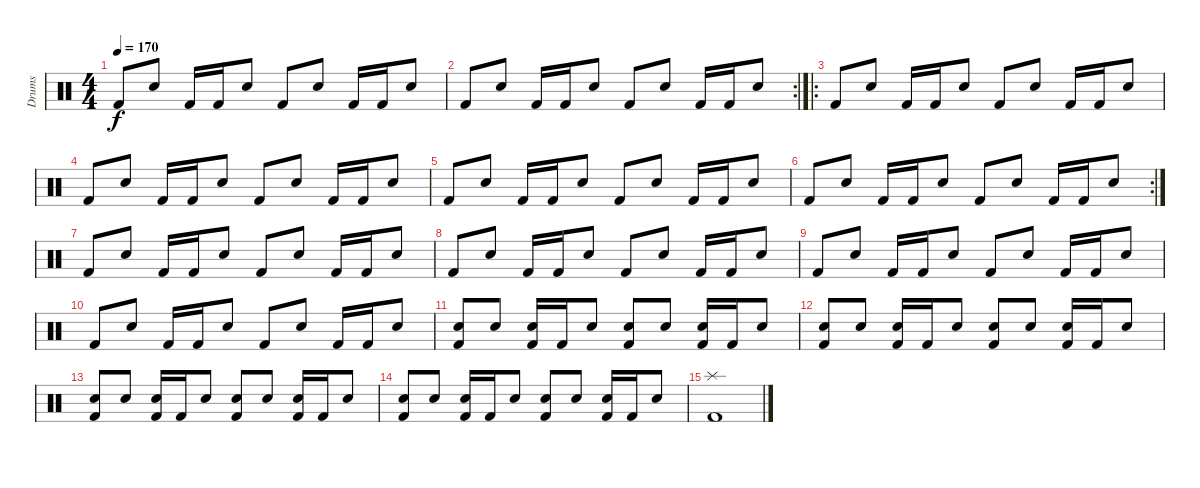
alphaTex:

\track ("Drums" "Drums") {instrument percussion}
\staff {score}
\articulation defaults
\ts (4 4)
\tempo 170
\clef neutral
\ks c "Kick (hit) 2".8{dy f} "Electric Snare (hit)".8 "Kick (hit) 2".16 "Kick (hit) 2".16 "Electric Snare (hit)".8 "Kick (hit) 2".8 "Electric Snare (hit)".8 "Kick (hit) 2".16 "Kick (hit) 2".16 "Electric Snare (hit)".8
|
\rc 2 "Kick (hit) 2".8 "Electric Snare (hit)".8 "Kick (hit) 2".16 "Kick (hit) 2".16 "Electric Snare (hit)".8 "Kick (hit) 2".8 "Electric Snare (hit)".8 "Kick (hit) 2".16 "Kick (hit) 2".16 "Electric Snare (hit)".8
|
\ro "Kick (hit) 2".8 "Electric Snare (hit)".8 "Kick (hit) 2".16 "Kick (hit) 2".16 "Electric Snare (hit)".8 "Kick (hit) 2".8 "Electric Snare (hit)".8 "Kick (hit) 2".16 "Kick (hit) 2".16 "Electric Snare (hit)".8
|
"Kick (hit) 2".8 "Electric Snare (hit)".8 "Kick (hit) 2".16 "Kick (hit) 2".16 "Electric Snare (hit)".8 "Kick (hit) 2".8 "Electric Snare (hit)".8 "Kick (hit) 2".16 "Kick (hit) 2".16 "Electric Snare (hit)".8 |
"Kick (hit) 2".8 "Electric Snare (hit)".8 "Kick (hit) 2".16 "Kick (hit) 2".16 "Electric Snare (hit)".8 "Kick (hit) 2".8 "Electric Snare (hit)".8 "Kick (hit) 2".16 "Kick (hit) 2".16 "Electric Snare (hit)".8 |
\rc 2 "Kick (hit) 2".8 "Electric Snare (hit)".8 "Kick (hit) 2".16 "Kick (hit) 2".16 "Electric Snare (hit)".8 "Kick (hit) 2".8 "Electric Snare (hit)".8 "Kick (hit) 2".16 "Kick (hit) 2".16 "Electric Snare (hit)".8
|
"Kick (hit) 2".8 "Electric Snare (hit)".8 "Kick (hit) 2".16 "Kick (hit) 2".16 "Electric Snare (hit)".8 "Kick (hit) 2".8 "Electric Snare (hit)".8 "Kick (hit) 2".16 "Kick (hit) 2".16 "Electric Snare (hit)".8 |
"Kick (hit) 2".8 "Electric Snare (hit)".8 "Kick (hit) 2".16 "Kick (hit) 2".16 "Electric Snare (hit)".8 "Kick (hit) 2".8 "Electric Snare (hit)".8 "Kick (hit) 2".16 "Kick (hit) 2".16 "Electric Snare (hit)".8 |
"Kick (hit) 2".8 "Electric Snare (hit)".8 "Kick (hit) 2".16 "Kick (hit) 2".16 "Electric Snare (hit)".8 "Kick (hit) 2".8 "Electric Snare (hit)".8 "Kick (hit) 2".16 "Kick (hit) 2".16 "Electric Snare (hit)".8 |
"Kick (hit) 2".8 "Electric Snare (hit)".8 "Kick (hit) 2".16 "Kick (hit) 2".16 "Electric Snare (hit)".8 "Kick (hit) 2".8 "Electric Snare (hit)".8 "Kick (hit) 2".16 "Kick (hit) 2".16 "Electric Snare (hit)".8 |
("Electric Snare (hit)" "Kick (hit) 2").8 "Electric Snare (hit)".8 ("Electric Snare (hit)" "Kick (hit) 2").16 "Kick (hit) 2".16 "Electric Snare (hit)".8 ("Electric Snare (hit)" "Kick (hit) 2").8 "Electric Snare (hit)".8 ("Electric Snare (hit)" "Kick (hit) 2").16 "Kick (hit) 2".16 "Electric Snare (hit)".8 |
("Electric Snare (hit)" "Kick (hit) 2").8 "Electric Snare (hit)".8 ("Electric Snare (hit)" "Kick (hit) 2").16 "Kick (hit) 2".16 "Electric Snare (hit)".8 ("Electric Snare (hit)" "Kick (hit) 2").8 "Electric Snare (hit)".8 ("Electric Snare (hit)" "Kick (hit) 2").16 "Kick (hit) 2".16 "Electric Snare (hit)".8 |
("Electric Snare (hit)" "Kick (hit) 2").8 "Electric Snare (hit)".8 ("Electric Snare (hit)" "Kick (hit) 2").16 "Kick (hit) 2".16 "Electric Snare (hit)".8 ("Electric Snare (hit)" "Kick (hit) 2").8 "Electric Snare (hit)".8 ("Electric Snare (hit)" "Kick (hit) 2").16 "Kick (hit) 2".16 "Electric Snare (hit)".8 |
("Electric Snare (hit)" "Kick (hit) 2").8 "Electric Snare (hit)".8 ("Electric Snare (hit)" "Kick (hit) 2").16 "Kick (hit) 2".16 "Electric Snare (hit)".8 ("Electric Snare (hit)" "Kick (hit) 2").8 "Electric Snare (hit)".8 ("Electric Snare (hit)" "Kick (hit) 2").16 "Kick (hit) 2".16 "Electric Snare (hit)".8 |
("Splash (hit)" "Kick (hit) 2").1
